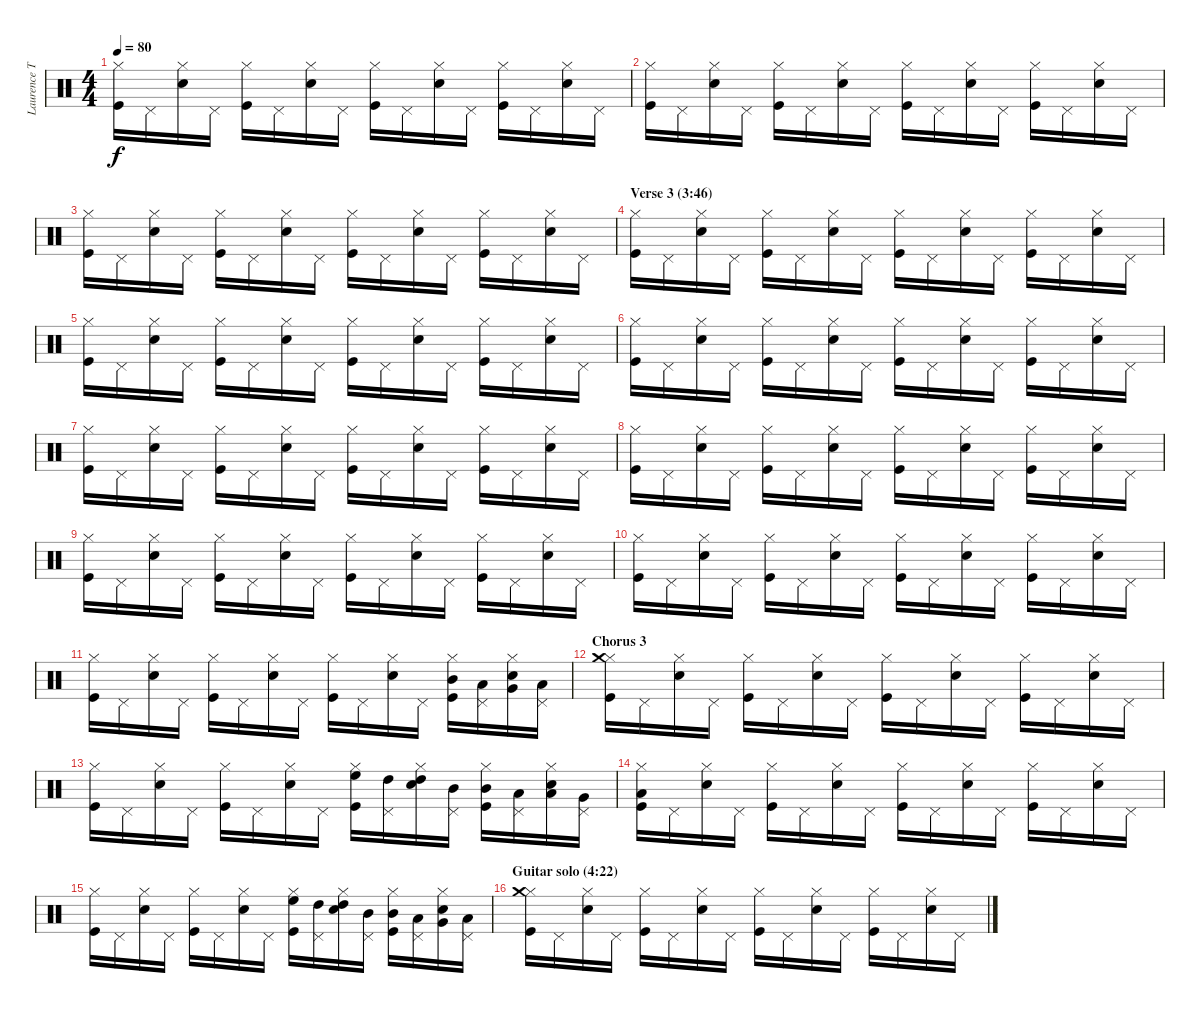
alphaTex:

\track ("Laurence Tolhurst (drums)" "Laurence T") {instrument percussion}
\staff {score}
\articulation defaults
\ts (4 4)
\tempo 80
\clef neutral
\ks c
("Kick (hit)" "Hi-Hat (closed)").16{dy f} "Pedal Hi-Hat (hit)".16 ("Snare (hit) 2" "Hi-Hat (closed)").16 "Pedal Hi-Hat (hit)".16 ("Kick (hit)" "Hi-Hat (closed)").16 "Pedal Hi-Hat (hit)".16 ("Snare (hit) 2" "Hi-Hat (closed)").16 "Pedal Hi-Hat (hit)".16 ("Kick (hit)" "Hi-Hat (closed)").16 "Pedal Hi-Hat (hit)".16 ("Snare (hit) 2" "Hi-Hat (closed)").16 "Pedal Hi-Hat (hit)".16 ("Kick (hit)" "Hi-Hat (closed)").16 "Pedal Hi-Hat (hit)".16 ("Snare (hit) 2" "Hi-Hat (closed)").16 "Pedal Hi-Hat (hit)".16 |
("Kick (hit)" "Hi-Hat (closed)").16 "Pedal Hi-Hat (hit)".16 ("Snare (hit) 2" "Hi-Hat (closed)").16 "Pedal Hi-Hat (hit)".16 ("Kick (hit)" "Hi-Hat (closed)").16 "Pedal Hi-Hat (hit)".16 ("Snare (hit) 2" "Hi-Hat (closed)").16 "Pedal Hi-Hat (hit)".16 ("Kick (hit)" "Hi-Hat (closed)").16 "Pedal Hi-Hat (hit)".16 ("Snare (hit) 2" "Hi-Hat (closed)").16 "Pedal Hi-Hat (hit)".16 ("Kick (hit)" "Hi-Hat (closed)").16 "Pedal Hi-Hat (hit)".16 ("Snare (hit) 2" "Hi-Hat (closed)").16 "Pedal Hi-Hat (hit)".16 |
("Kick (hit)" "Hi-Hat (closed)").16 "Pedal Hi-Hat (hit)".16 ("Snare (hit) 2" "Hi-Hat (closed)").16 "Pedal Hi-Hat (hit)".16 ("Kick (hit)" "Hi-Hat (closed)").16 "Pedal Hi-Hat (hit)".16 ("Snare (hit) 2" "Hi-Hat (closed)").16 "Pedal Hi-Hat (hit)".16 ("Kick (hit)" "Hi-Hat (closed)").16 "Pedal Hi-Hat (hit)".16 ("Snare (hit) 2" "Hi-Hat (closed)").16 "Pedal Hi-Hat (hit)".16 ("Kick (hit)" "Hi-Hat (closed)").16 "Pedal Hi-Hat (hit)".16 ("Snare (hit) 2" "Hi-Hat (closed)").16 "Pedal Hi-Hat (hit)".16 |
\section ("" "Verse 3 (3:46)")
("Kick (hit)" "Hi-Hat (closed)").16 "Pedal Hi-Hat (hit)".16 ("Snare (hit) 2" "Hi-Hat (closed)").16 "Pedal Hi-Hat (hit)".16 ("Kick (hit)" "Hi-Hat (closed)").16 "Pedal Hi-Hat (hit)".16 ("Snare (hit) 2" "Hi-Hat (closed)").16 "Pedal Hi-Hat (hit)".16 ("Kick (hit)" "Hi-Hat (closed)").16 "Pedal Hi-Hat (hit)".16 ("Snare (hit) 2" "Hi-Hat (closed)").16 "Pedal Hi-Hat (hit)".16 ("Kick (hit)" "Hi-Hat (closed)").16 "Pedal Hi-Hat (hit)".16 ("Snare (hit) 2" "Hi-Hat (closed)").16 "Pedal Hi-Hat (hit)".16 |
("Kick (hit)" "Hi-Hat (closed)").16 "Pedal Hi-Hat (hit)".16 ("Snare (hit) 2" "Hi-Hat (closed)").16 "Pedal Hi-Hat (hit)".16 ("Kick (hit)" "Hi-Hat (closed)").16 "Pedal Hi-Hat (hit)".16 ("Snare (hit) 2" "Hi-Hat (closed)").16 "Pedal Hi-Hat (hit)".16 ("Kick (hit)" "Hi-Hat (closed)").16 "Pedal Hi-Hat (hit)".16 ("Snare (hit) 2" "Hi-Hat (closed)").16 "Pedal Hi-Hat (hit)".16 ("Kick (hit)" "Hi-Hat (closed)").16 "Pedal Hi-Hat (hit)".16 ("Snare (hit) 2" "Hi-Hat (closed)").16 "Pedal Hi-Hat (hit)".16 |
("Kick (hit)" "Hi-Hat (closed)").16 "Pedal Hi-Hat (hit)".16 ("Snare (hit) 2" "Hi-Hat (closed)").16 "Pedal Hi-Hat (hit)".16 ("Kick (hit)" "Hi-Hat (closed)").16 "Pedal Hi-Hat (hit)".16 ("Snare (hit) 2" "Hi-Hat (closed)").16 "Pedal Hi-Hat (hit)".16 ("Kick (hit)" "Hi-Hat (closed)").16 "Pedal Hi-Hat (hit)".16 ("Snare (hit) 2" "Hi-Hat (closed)").16 "Pedal Hi-Hat (hit)".16 ("Kick (hit)" "Hi-Hat (closed)").16 "Pedal Hi-Hat (hit)".16 ("Snare (hit) 2" "Hi-Hat (closed)").16 "Pedal Hi-Hat (hit)".16 |
("Kick (hit)" "Hi-Hat (closed)").16 "Pedal Hi-Hat (hit)".16 ("Snare (hit) 2" "Hi-Hat (closed)").16 "Pedal Hi-Hat (hit)".16 ("Kick (hit)" "Hi-Hat (closed)").16 "Pedal Hi-Hat (hit)".16 ("Snare (hit) 2" "Hi-Hat (closed)").16 "Pedal Hi-Hat (hit)".16 ("Kick (hit)" "Hi-Hat (closed)").16 "Pedal Hi-Hat (hit)".16 ("Snare (hit) 2" "Hi-Hat (closed)").16 "Pedal Hi-Hat (hit)".16 ("Kick (hit)" "Hi-Hat (closed)").16 "Pedal Hi-Hat (hit)".16 ("Snare (hit) 2" "Hi-Hat (closed)").16 "Pedal Hi-Hat (hit)".16 |
("Kick (hit)" "Hi-Hat (closed)").16 "Pedal Hi-Hat (hit)".16 ("Snare (hit) 2" "Hi-Hat (closed)").16 "Pedal Hi-Hat (hit)".16 ("Kick (hit)" "Hi-Hat (closed)").16 "Pedal Hi-Hat (hit)".16 ("Snare (hit) 2" "Hi-Hat (closed)").16 "Pedal Hi-Hat (hit)".16 ("Kick (hit)" "Hi-Hat (closed)").16 "Pedal Hi-Hat (hit)".16 ("Snare (hit) 2" "Hi-Hat (closed)").16 "Pedal Hi-Hat (hit)".16 ("Kick (hit)" "Hi-Hat (closed)").16 "Pedal Hi-Hat (hit)".16 ("Snare (hit) 2" "Hi-Hat (closed)").16 "Pedal Hi-Hat (hit)".16 |
("Kick (hit)" "Hi-Hat (closed)").16 "Pedal Hi-Hat (hit)".16 ("Snare (hit) 2" "Hi-Hat (closed)").16 "Pedal Hi-Hat (hit)".16 ("Kick (hit)" "Hi-Hat (closed)").16 "Pedal Hi-Hat (hit)".16 ("Snare (hit) 2" "Hi-Hat (closed)").16 "Pedal Hi-Hat (hit)".16 ("Kick (hit)" "Hi-Hat (closed)").16 "Pedal Hi-Hat (hit)".16 ("Snare (hit) 2" "Hi-Hat (closed)").16 "Pedal Hi-Hat (hit)".16 ("Kick (hit)" "Hi-Hat (closed)").16 "Pedal Hi-Hat (hit)".16 ("Snare (hit) 2" "Hi-Hat (closed)").16 "Pedal Hi-Hat (hit)".16 |
("Kick (hit)" "Hi-Hat (closed)").16 "Pedal Hi-Hat (hit)".16 ("Snare (hit) 2" "Hi-Hat (closed)").16 "Pedal Hi-Hat (hit)".16 ("Kick (hit)" "Hi-Hat (closed)").16 "Pedal Hi-Hat (hit)".16 ("Snare (hit) 2" "Hi-Hat (closed)").16 "Pedal Hi-Hat (hit)".16 ("Kick (hit)" "Hi-Hat (closed)").16 "Pedal Hi-Hat (hit)".16 ("Snare (hit) 2" "Hi-Hat (closed)").16 "Pedal Hi-Hat (hit)".16 ("Kick (hit)" "Hi-Hat (closed)").16 "Pedal Hi-Hat (hit)".16 ("Snare (hit) 2" "Hi-Hat (closed)").16 "Pedal Hi-Hat (hit)".16 |
("Kick (hit)" "Hi-Hat (closed)").16 "Pedal Hi-Hat (hit)".16 ("Snare (hit) 2" "Hi-Hat (closed)").16 "Pedal Hi-Hat (hit)".16 ("Kick (hit)" "Hi-Hat (closed)").16 "Pedal Hi-Hat (hit)".16 ("Snare (hit) 2" "Hi-Hat (closed)").16 "Pedal Hi-Hat (hit)".16 ("Kick (hit)" "Hi-Hat (closed)").16 "Pedal Hi-Hat (hit)".16 ("Snare (hit) 2" "Hi-Hat (closed)").16 "Pedal Hi-Hat (hit)".16 ("Kick (hit)" "Hi-Hat (closed)" "Mid Tom (hit)").16 ("Pedal Hi-Hat (hit)" "Low Tom (hit)").16 ("Snare (hit) 2" "Hi-Hat (closed)" "Very Low Tom (hit)").16 ("Pedal Hi-Hat (hit)" "Low Floor Tom (hit)").16 |
\section ("" "Chorus 3")
("Kick (hit)" "Hi-Hat (closed)" "Crash medium (hit)").16 "Pedal Hi-Hat (hit)".16 ("Snare (hit) 2" "Hi-Hat (closed)").16 "Pedal Hi-Hat (hit)".16 ("Kick (hit)" "Hi-Hat (closed)").16 "Pedal Hi-Hat (hit)".16 ("Snare (hit) 2" "Hi-Hat (closed)").16 "Pedal Hi-Hat (hit)".16 ("Kick (hit)" "Hi-Hat (closed)").16 "Pedal Hi-Hat (hit)".16 ("Snare (hit) 2" "Hi-Hat (closed)").16 "Pedal Hi-Hat (hit)".16 ("Kick (hit)" "Hi-Hat (closed)").16 "Pedal Hi-Hat (hit)".16 ("Snare (hit) 2" "Hi-Hat (closed)").16 "Pedal Hi-Hat (hit)".16 |
("Kick (hit)" "Hi-Hat (closed)").16 "Pedal Hi-Hat (hit)".16 ("Snare (hit) 2" "Hi-Hat (closed)").16 "Pedal Hi-Hat (hit)".16 ("Kick (hit)" "Hi-Hat (closed)").16 "Pedal Hi-Hat (hit)".16 ("Snare (hit) 2" "Hi-Hat (closed)").16 "Pedal Hi-Hat (hit)".16 ("Kick (hit)" "Hi-Hat (closed)" "High Floor Tom (hit)").16 ("Pedal Hi-Hat (hit)" "High Tom (hit)").16 ("Snare (hit) 2" "Hi-Hat (closed)" "High Tom (hit)").16 ("Pedal Hi-Hat (hit)" "Mid Tom (hit)").16 ("Kick (hit)" "Hi-Hat (closed)" "Mid Tom (hit)").16 ("Pedal Hi-Hat (hit)" "Low Tom (hit)").16 ("Snare (hit) 2" "Hi-Hat (closed)" "Low Tom (hit)").16 ("Pedal Hi-Hat (hit)" "Very Low Tom (hit)").16 |
("Kick (hit)" "Hi-Hat (closed)" "Low Floor Tom (hit)").16 "Pedal Hi-Hat (hit)".16 ("Snare (hit) 2" "Hi-Hat (closed)").16 "Pedal Hi-Hat (hit)".16 ("Kick (hit)" "Hi-Hat (closed)").16 "Pedal Hi-Hat (hit)".16 ("Snare (hit) 2" "Hi-Hat (closed)").16 "Pedal Hi-Hat (hit)".16 ("Kick (hit)" "Hi-Hat (closed)").16 "Pedal Hi-Hat (hit)".16 ("Snare (hit) 2" "Hi-Hat (closed)").16 "Pedal Hi-Hat (hit)".16 ("Kick (hit)" "Hi-Hat (closed)").16 "Pedal Hi-Hat (hit)".16 ("Snare (hit) 2" "Hi-Hat (closed)").16 "Pedal Hi-Hat (hit)".16 |
("Kick (hit)" "Hi-Hat (closed)").16 "Pedal Hi-Hat (hit)".16 ("Snare (hit) 2" "Hi-Hat (closed)").16 "Pedal Hi-Hat (hit)".16 ("Kick (hit)" "Hi-Hat (closed)").16 "Pedal Hi-Hat (hit)".16 ("Snare (hit) 2" "Hi-Hat (closed)").16 "Pedal Hi-Hat (hit)".16 ("Kick (hit)" "Hi-Hat (closed)" "High Floor Tom (hit)").16 ("Pedal Hi-Hat (hit)" "High Tom (hit)").16 ("Snare (hit) 2" "Hi-Hat (closed)" "High Tom (hit)").16 ("Pedal Hi-Hat (hit)" "Mid Tom (hit)").16 ("Kick (hit)" "Hi-Hat (closed)" "Mid Tom (hit)").16 ("Pedal Hi-Hat (hit)" "Low Tom (hit)").16 ("Snare (hit) 2" "Hi-Hat (closed)" "Very Low Tom (hit)").16 ("Pedal Hi-Hat (hit)" "Low Floor Tom (hit)").16 |
\section ("" "Guitar solo (4:22)")
("Kick (hit)" "Hi-Hat (closed)" "Crash medium (hit)").16 "Pedal Hi-Hat (hit)".16 ("Snare (hit) 2" "Hi-Hat (closed)").16 "Pedal Hi-Hat (hit)".16 ("Kick (hit)" "Hi-Hat (closed)").16 "Pedal Hi-Hat (hit)".16 ("Snare (hit) 2" "Hi-Hat (closed)").16 "Pedal Hi-Hat (hit)".16 ("Kick (hit)" "Hi-Hat (closed)").16 "Pedal Hi-Hat (hit)".16 ("Snare (hit) 2" "Hi-Hat (closed)").16 "Pedal Hi-Hat (hit)".16 ("Kick (hit)" "Hi-Hat (closed)").16 "Pedal Hi-Hat (hit)".16 ("Snare (hit) 2" "Hi-Hat (closed)").16 "Pedal Hi-Hat (hit)".16
